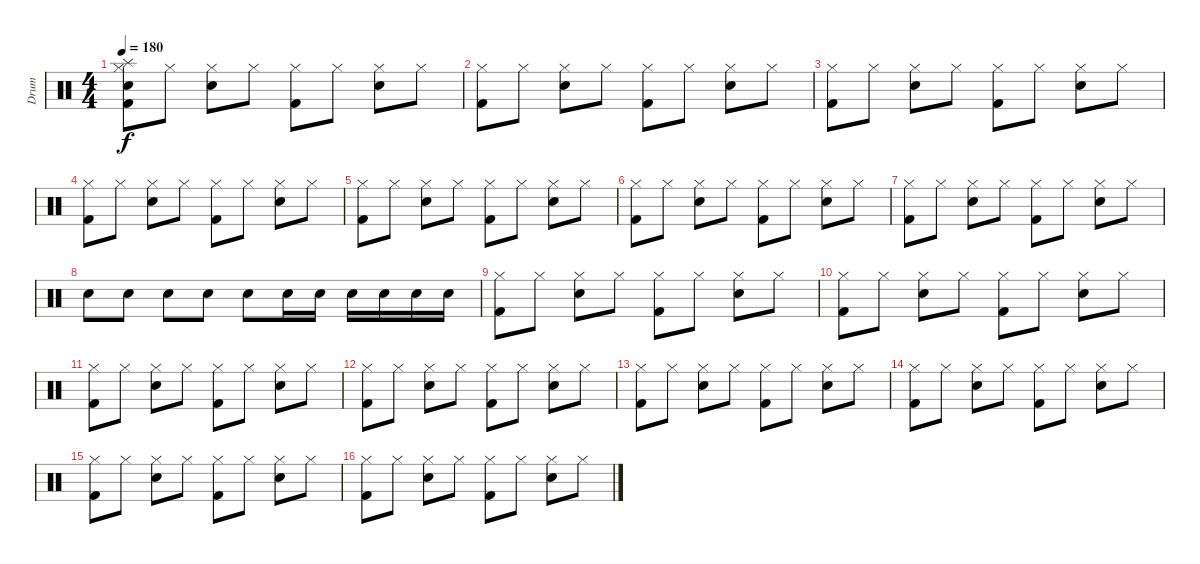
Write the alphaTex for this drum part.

\track ("Drum" "Drum") {instrument percussion}
\staff {score}
\articulation defaults
\ts (4 4)
\tempo 180
\clef neutral
\ks c
("Hi-Hat (closed)" "Kick (hit) 2" "Splash (hit)" "Snare (hit) 2").8{dy f} "Hi-Hat (closed)".8 ("Hi-Hat (closed)" "Snare (hit) 2").8 "Hi-Hat (closed)".8 ("Hi-Hat (closed)" "Kick (hit) 2").8 "Hi-Hat (closed)".8 ("Hi-Hat (closed)" "Snare (hit) 2").8 "Hi-Hat (closed)".8 |
("Hi-Hat (closed)" "Kick (hit) 2").8 "Hi-Hat (closed)".8 ("Hi-Hat (closed)" "Snare (hit) 2").8 "Hi-Hat (closed)".8 ("Hi-Hat (closed)" "Kick (hit) 2").8 "Hi-Hat (closed)".8 ("Hi-Hat (closed)" "Snare (hit) 2").8 "Hi-Hat (closed)".8 |
("Hi-Hat (closed)" "Kick (hit) 2").8 "Hi-Hat (closed)".8 ("Hi-Hat (closed)" "Snare (hit) 2").8 "Hi-Hat (closed)".8 ("Hi-Hat (closed)" "Kick (hit) 2").8 "Hi-Hat (closed)".8 ("Hi-Hat (closed)" "Snare (hit) 2").8 "Hi-Hat (closed)".8 |
("Hi-Hat (closed)" "Kick (hit) 2").8 "Hi-Hat (closed)".8 ("Hi-Hat (closed)" "Snare (hit) 2").8 "Hi-Hat (closed)".8 ("Hi-Hat (closed)" "Kick (hit) 2").8 "Hi-Hat (closed)".8 ("Hi-Hat (closed)" "Snare (hit) 2").8 "Hi-Hat (closed)".8 |
("Hi-Hat (closed)" "Kick (hit) 2").8 "Hi-Hat (closed)".8 ("Hi-Hat (closed)" "Snare (hit) 2").8 "Hi-Hat (closed)".8 ("Hi-Hat (closed)" "Kick (hit) 2").8 "Hi-Hat (closed)".8 ("Hi-Hat (closed)" "Snare (hit) 2").8 "Hi-Hat (closed)".8 |
("Hi-Hat (closed)" "Kick (hit) 2").8 "Hi-Hat (closed)".8 ("Hi-Hat (closed)" "Snare (hit) 2").8 "Hi-Hat (closed)".8 ("Hi-Hat (closed)" "Kick (hit) 2").8 "Hi-Hat (closed)".8 ("Hi-Hat (closed)" "Snare (hit) 2").8 "Hi-Hat (closed)".8 |
("Hi-Hat (closed)" "Kick (hit) 2").8 "Hi-Hat (closed)".8 ("Hi-Hat (closed)" "Snare (hit) 2").8 "Hi-Hat (closed)".8 ("Hi-Hat (closed)" "Kick (hit) 2").8 "Hi-Hat (closed)".8 ("Hi-Hat (closed)" "Snare (hit) 2").8 "Hi-Hat (closed)".8 |
"Electric Snare (hit)".8 "Electric Snare (hit)".8 "Electric Snare (hit)".8 "Electric Snare (hit)".8 "Electric Snare (hit)".8 "Electric Snare (hit)".16 "Electric Snare (hit)".16 "Electric Snare (hit)".16 "Electric Snare (hit)".16 "Electric Snare (hit)".16 "Electric Snare (hit)".16 |
("Hi-Hat (closed)" "Kick (hit) 2").8 "Hi-Hat (closed)".8 ("Hi-Hat (closed)" "Snare (hit) 2").8 "Hi-Hat (closed)".8 ("Hi-Hat (closed)" "Kick (hit) 2").8 "Hi-Hat (closed)".8 ("Hi-Hat (closed)" "Snare (hit) 2").8 "Hi-Hat (closed)".8 |
("Hi-Hat (closed)" "Kick (hit) 2").8 "Hi-Hat (closed)".8 ("Hi-Hat (closed)" "Snare (hit) 2").8 "Hi-Hat (closed)".8 ("Hi-Hat (closed)" "Kick (hit) 2").8 "Hi-Hat (closed)".8 ("Hi-Hat (closed)" "Snare (hit) 2").8 "Hi-Hat (closed)".8 |
("Hi-Hat (closed)" "Kick (hit) 2").8 "Hi-Hat (closed)".8 ("Hi-Hat (closed)" "Snare (hit) 2").8 "Hi-Hat (closed)".8 ("Hi-Hat (closed)" "Kick (hit) 2").8 "Hi-Hat (closed)".8 ("Hi-Hat (closed)" "Snare (hit) 2").8 "Hi-Hat (closed)".8 |
("Hi-Hat (closed)" "Kick (hit) 2").8 "Hi-Hat (closed)".8 ("Hi-Hat (closed)" "Snare (hit) 2").8 "Hi-Hat (closed)".8 ("Hi-Hat (closed)" "Kick (hit) 2").8 "Hi-Hat (closed)".8 ("Hi-Hat (closed)" "Snare (hit) 2").8 "Hi-Hat (closed)".8 |
("Hi-Hat (closed)" "Kick (hit) 2").8 "Hi-Hat (closed)".8 ("Hi-Hat (closed)" "Snare (hit) 2").8 "Hi-Hat (closed)".8 ("Hi-Hat (closed)" "Kick (hit) 2").8 "Hi-Hat (closed)".8 ("Hi-Hat (closed)" "Snare (hit) 2").8 "Hi-Hat (closed)".8 |
("Hi-Hat (closed)" "Kick (hit) 2").8 "Hi-Hat (closed)".8 ("Hi-Hat (closed)" "Snare (hit) 2").8 "Hi-Hat (closed)".8 ("Hi-Hat (closed)" "Kick (hit) 2").8 "Hi-Hat (closed)".8 ("Hi-Hat (closed)" "Snare (hit) 2").8 "Hi-Hat (closed)".8 |
("Hi-Hat (closed)" "Kick (hit) 2").8 "Hi-Hat (closed)".8 ("Hi-Hat (closed)" "Snare (hit) 2").8 "Hi-Hat (closed)".8 ("Hi-Hat (closed)" "Kick (hit) 2").8 "Hi-Hat (closed)".8 ("Hi-Hat (closed)" "Snare (hit) 2").8 "Hi-Hat (closed)".8 |
("Hi-Hat (closed)" "Kick (hit) 2").8 "Hi-Hat (closed)".8 ("Hi-Hat (closed)" "Snare (hit) 2").8 "Hi-Hat (closed)".8 ("Hi-Hat (closed)" "Kick (hit) 2").8 "Hi-Hat (closed)".8 ("Hi-Hat (closed)" "Snare (hit) 2").8 "Hi-Hat (closed)".8
